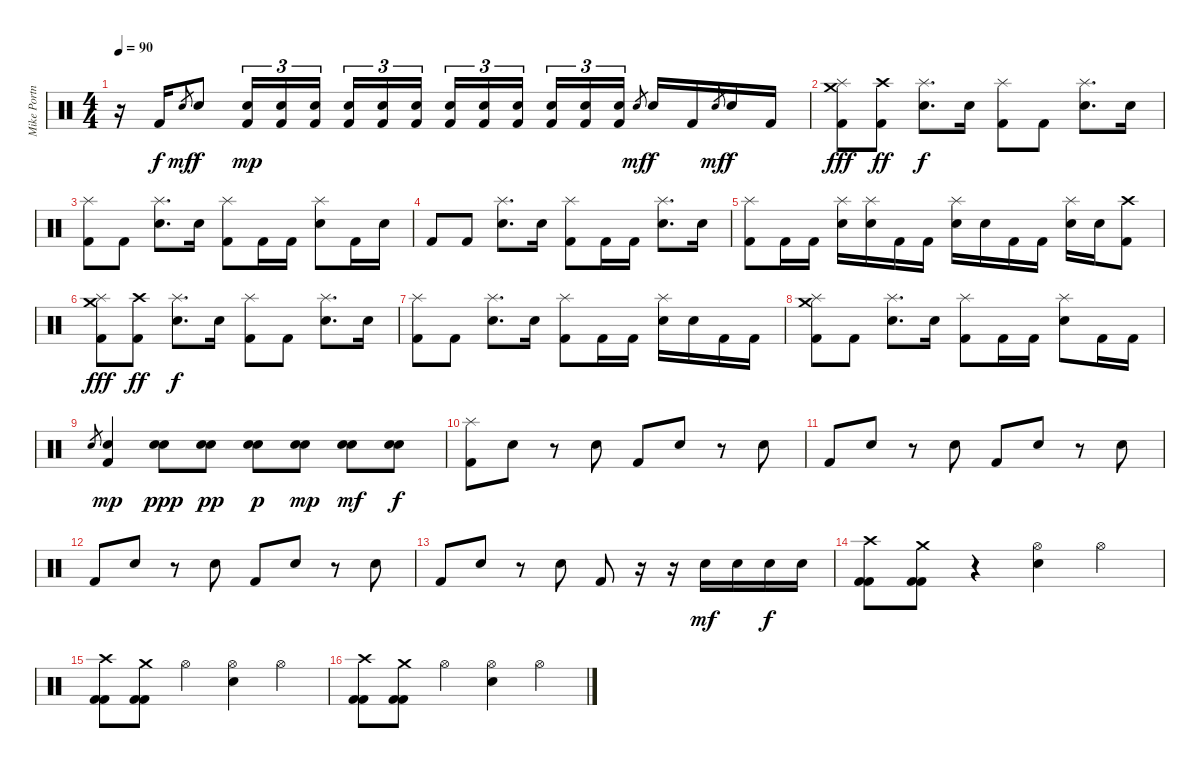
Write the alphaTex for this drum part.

\track ("Mike Portnoy (Drums)" "Mike Portn") {instrument percussion}
\staff {score}
\articulation defaults
\ts (4 4)
\tempo 90
\clef neutral
\ks c
r.16{dy f} "Kick (hit) 2".16 "Electric Snare (hit)".8{gr dy mf} "Electric Snare (hit)".8{dy f} ("Electric Snare (hit)" "Kick (hit) 2").16{tu (3 2) dy mp} ("Electric Snare (hit)" "Kick (hit) 2").16{tu (3 2)} ("Electric Snare (hit)" "Kick (hit) 2").16{tu (3 2) beam splitsecondary} ("Electric Snare (hit)" "Kick (hit) 2").16{tu (3 2)} ("Electric Snare (hit)" "Kick (hit) 2").16{tu (3 2)} ("Electric Snare (hit)" "Kick (hit) 2").16{tu (3 2)} ("Electric Snare (hit)" "Kick (hit) 2").16{tu (3 2)} ("Electric Snare (hit)" "Kick (hit) 2").16{tu (3 2)} ("Electric Snare (hit)" "Kick (hit) 2").16{tu (3 2) beam splitsecondary} ("Electric Snare (hit)" "Kick (hit) 2").16{tu (3 2)} ("Electric Snare (hit)" "Kick (hit) 2").16{tu (3 2)} ("Electric Snare (hit)" "Kick (hit) 2").16{tu (3 2)} "Electric Snare (hit)".8{gr dy mf} "Electric Snare (hit)".16{dy f} "Kick (hit) 2".16 "Electric Snare (hit)".8{gr dy mf} "Electric Snare (hit)".16{dy f} "Kick (hit) 2".16 |
("Crash medium (hit)" "Splash (hit)" "Kick (hit) 2").8{dy fff} ("Crash high (hit)" "Kick (hit) 2").8{dy ff} ("Splash (hit)" "Electric Snare (hit)").8{d dy f} "Electric Snare (hit)".16 ("Splash (hit)" "Kick (hit) 2").8 "Kick (hit) 2".8 ("Splash (hit)" "Electric Snare (hit)").8{d} "Electric Snare (hit)".16 |
("Splash (hit)" "Kick (hit) 2").8 "Kick (hit) 2".8 ("Splash (hit)" "Electric Snare (hit)").8{d} "Electric Snare (hit)".16 ("Splash (hit)" "Kick (hit) 2").8 "Kick (hit) 2".16 "Kick (hit) 2".16 ("Splash (hit)" "Electric Snare (hit)").8 "Kick (hit) 2".16 "Electric Snare (hit)".16 |
"Kick (hit) 2".8 "Kick (hit) 2".8 ("Splash (hit)" "Electric Snare (hit)").8{d} "Electric Snare (hit)".16 ("Splash (hit)" "Kick (hit) 2").8 "Kick (hit) 2".16 "Kick (hit) 2".16 ("Splash (hit)" "Electric Snare (hit)").8{d} "Electric Snare (hit)".16 |
("Splash (hit)" "Kick (hit) 2").8 "Kick (hit) 2".16 "Kick (hit) 2".16 ("Splash (hit)" "Electric Snare (hit)").16 ("Splash (hit)" "Electric Snare (hit)").16 "Kick (hit) 2".16 "Kick (hit) 2".16 ("Splash (hit)" "Electric Snare (hit)").16 "Electric Snare (hit)".16 "Kick (hit) 2".16 "Kick (hit) 2".16 ("Splash (hit)" "Electric Snare (hit)").16 "Electric Snare (hit)".16 ("Crash high (hit)" "Kick (hit) 2").8 |
("Crash medium (hit)" "Splash (hit)" "Kick (hit) 2").8{dy fff} ("Crash high (hit)" "Kick (hit) 2").8{dy ff} ("Splash (hit)" "Electric Snare (hit)").8{d dy f} "Electric Snare (hit)".16 ("Splash (hit)" "Kick (hit) 2").8 "Kick (hit) 2".8 ("Splash (hit)" "Electric Snare (hit)").8{d} "Electric Snare (hit)".16 |
("Splash (hit)" "Kick (hit) 2").8 "Kick (hit) 2".8 ("Splash (hit)" "Electric Snare (hit)").8{d} "Electric Snare (hit)".16 ("Splash (hit)" "Kick (hit) 2").8 "Kick (hit) 2".16 "Kick (hit) 2".16 ("Splash (hit)" "Electric Snare (hit)").16 "Electric Snare (hit)".16 "Kick (hit) 2".16 "Kick (hit) 2".16 |
("Crash medium (hit)" "Splash (hit)" "Kick (hit) 2").8 "Kick (hit) 2".8 ("Splash (hit)" "Electric Snare (hit)").8{d} "Electric Snare (hit)".16 ("Splash (hit)" "Kick (hit) 2").8 "Kick (hit) 2".16 "Kick (hit) 2".16 ("Splash (hit)" "Electric Snare (hit)").8 "Kick (hit) 2".16 "Kick (hit) 2".16 |
"Electric Snare (hit)".8{gr} ("Electric Snare (hit)" "Kick (hit) 2").4{dy mp} ("Electric Snare (hit)" "Electric Snare (hit)").8{dy ppp} ("Electric Snare (hit)" "Electric Snare (hit)").8{dy pp} ("Electric Snare (hit)" "Electric Snare (hit)").8{dy p} ("Electric Snare (hit)" "Electric Snare (hit)").8{dy mp} ("Electric Snare (hit)" "Electric Snare (hit)").8{dy mf} ("Electric Snare (hit)" "Electric Snare (hit)").8{dy f} |
("Splash (hit)" "Kick (hit) 2").8 "Electric Snare (hit)".8 r.8 "Electric Snare (hit)".8 "Kick (hit) 2".8 "Electric Snare (hit)".8 r.8 "Electric Snare (hit)".8 |
"Kick (hit) 2".8 "Electric Snare (hit)".8 r.8 "Electric Snare (hit)".8 "Kick (hit) 2".8 "Electric Snare (hit)".8 r.8 "Electric Snare (hit)".8 |
"Kick (hit) 2".8 "Electric Snare (hit)".8 r.8 "Electric Snare (hit)".8 "Kick (hit) 2".8 "Electric Snare (hit)".8 r.8 "Electric Snare (hit)".8 |
"Kick (hit) 2".8 "Electric Snare (hit)".8 r.8 "Electric Snare (hit)".8 "Kick (hit) 2".8 r.16 r.16 "Electric Snare (hit)".16{dy mf} "Electric Snare (hit)".16 "Electric Snare (hit)".16{dy f} "Electric Snare (hit)".16 |
("Crash high (hit)" "Kick (hit) 2" "Kick (hit) 2").8 ("Crash medium (hit)" "Kick (hit) 2" "Kick (hit) 2").8 r.4 ("Hi-Hat (open)" "Electric Snare (hit)").4 "Hi-Hat (open)".4 |
("Crash high (hit)" "Kick (hit) 2" "Kick (hit) 2").8 ("Crash medium (hit)" "Kick (hit) 2" "Kick (hit) 2").8 "Hi-Hat (open)".4 ("Hi-Hat (open)" "Electric Snare (hit)").4 "Hi-Hat (open)".4 |
("Crash high (hit)" "Kick (hit) 2" "Kick (hit) 2").8 ("Crash medium (hit)" "Kick (hit) 2" "Kick (hit) 2").8 "Hi-Hat (open)".4 ("Hi-Hat (open)" "Electric Snare (hit)").4 "Hi-Hat (open)".4
